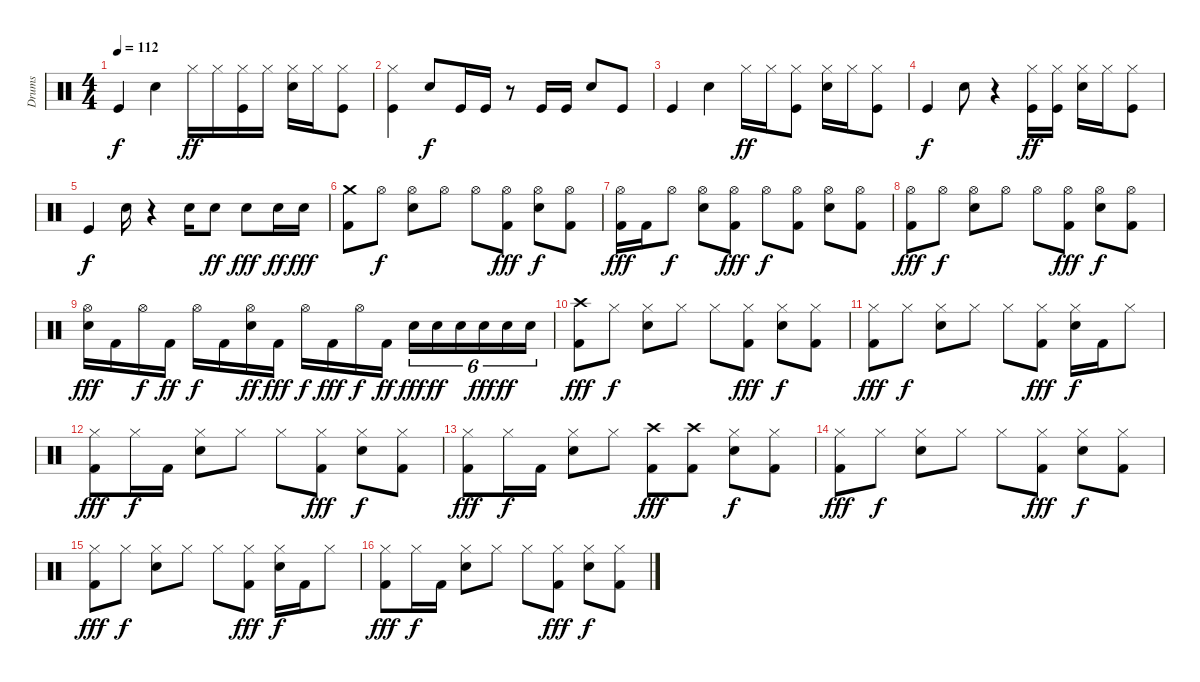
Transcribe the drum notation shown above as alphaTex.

\track ("Drums" "Drums") {instrument percussion}
\staff {score}
\articulation defaults
\ts (4 4)
\tempo 112
\clef neutral
\ks c "Kick (hit)".4{dy f} "Snare (hit) 2".4 "Hi-Hat (closed)".16{dy ff} "Hi-Hat (closed)".16
("Hi-Hat (closed)" "Kick (hit)").16 "Hi-Hat (closed)".16 ("Hi-Hat (closed)" "Snare (hit) 2").16 "Hi-Hat (closed)".16 ("Hi-Hat (closed)" "Kick (hit)").8 |
("Hi-Hat (closed)" "Kick (hit)").4 "Snare (hit) 2".8{dy f} "Kick (hit)".16 "Kick (hit)".16 r.8 "Kick (hit)".16 "Kick (hit)".16 "Snare (hit) 2".8 "Kick (hit)".8 |
"Kick (hit)".4 "Snare (hit) 2".4 "Hi-Hat (closed)".16{dy ff} "Hi-Hat (closed)".16 ("Hi-Hat (closed)" "Kick (hit)").8 ("Hi-Hat (closed)" "Snare (hit) 2").16 "Hi-Hat (closed)".16 ("Hi-Hat (closed)" "Kick (hit)").8 |
"Kick (hit)".4{dy f} "Snare (hit) 2".8 r.4 ("Kick (hit)" "Hi-Hat (closed)").16{dy ff} ("Kick (hit)" "Hi-Hat (closed)").16 ("Hi-Hat (closed)" "Snare (hit) 2").16 "Hi-Hat (closed)".16 ("Kick (hit)" "Hi-Hat (closed)").8 |
"Kick (hit)".4{dy f} "Snare (hit) 2".16 r.4 "Snare (hit) 2".16 "Snare (hit) 2".8{dy ff} "Snare (hit) 2".8{dy fff} "Snare (hit) 2".16{dy ff} "Snare (hit) 2".16{dy fff} |
("Crash medium (hit)" "Kick (hit) 2").8 "Hi-Hat (open)".8{dy f} ("Hi-Hat (open)" "Snare (hit) 2").8 "Hi-Hat (open)".8 "Hi-Hat (open)".8 ("Hi-Hat (open)" "Kick (hit) 2").8{dy fff} ("Hi-Hat (open)" "Snare (hit) 2").8{dy f} ("Hi-Hat (open)" "Kick (hit) 2").8 |
("Hi-Hat (open)" "Kick (hit) 2").16{dy fff} "Kick (hit) 2".16 "Hi-Hat (open)".8{dy f} ("Hi-Hat (open)" "Snare (hit) 2").8 ("Kick (hit) 2" "Hi-Hat (open)").8{dy fff} "Hi-Hat (open)".8{dy f} ("Hi-Hat (open)" "Kick (hit) 2").8 ("Hi-Hat (open)" "Snare (hit) 2").8 ("Hi-Hat (open)" "Kick (hit) 2").8 |
("Hi-Hat (open)" "Kick (hit) 2").8{dy fff} "Hi-Hat (open)".8{dy f} ("Hi-Hat (open)" "Snare (hit) 2").8 "Hi-Hat (open)".8 "Hi-Hat (open)".8 ("Hi-Hat (open)" "Kick (hit) 2").8{dy fff} ("Hi-Hat (open)" "Snare (hit) 2").8{dy f} ("Hi-Hat (open)" "Kick (hit) 2").8 |
("Hi-Hat (open)" "Snare (hit) 2").16{dy fff} "Kick (hit) 2".16 "Hi-Hat (open)".16{dy f} "Kick (hit) 2".16{dy ff} "Hi-Hat (open)".16{dy f} "Kick (hit) 2".16 ("Hi-Hat (open)" "Snare (hit) 2").16{dy ff} "Kick (hit) 2".16{dy fff} "Hi-Hat (open)".16{dy f} "Kick (hit) 2".16{dy fff} "Hi-Hat (open)".16{dy f} "Kick (hit) 2".16{dy ff} "Snare (hit) 2".16{tu (6 4) dy fff} "Snare (hit) 2".16{tu (6 4) dy ff} "Snare (hit) 2".16{tu (6 4)} "Snare (hit) 2".16{tu (6 4) dy fff} "Snare (hit) 2".16{tu (6 4) dy ff} "Snare (hit) 2".16{tu (6 4)} |
("Kick (hit) 2" "Crash high (hit)").8{dy fff} "Hi-Hat (closed)".8{dy f} ("Hi-Hat (closed)" "Snare (hit) 2").8 "Hi-Hat (closed)".8 "Hi-Hat (closed)".8 ("Hi-Hat (closed)" "Kick (hit) 2").8{dy fff} ("Hi-Hat (closed)" "Snare (hit) 2").8{dy f} ("Hi-Hat (closed)" "Kick (hit) 2").8 |
("Hi-Hat (closed)" "Kick (hit) 2").8{dy fff} "Hi-Hat (closed)".8{dy f} ("Hi-Hat (closed)" "Snare (hit) 2").8 "Hi-Hat (closed)".8 "Hi-Hat (closed)".8 ("Hi-Hat (closed)" "Kick (hit) 2").8{dy fff} ("Hi-Hat (closed)" "Snare (hit) 2").16{dy f} "Kick (hit) 2".16 "Hi-Hat (closed)".8 |
("Hi-Hat (closed)" "Kick (hit) 2").8{dy fff} "Hi-Hat (closed)".16{dy f} "Kick (hit) 2".16 ("Hi-Hat (closed)" "Snare (hit) 2").8 "Hi-Hat (closed)".8 "Hi-Hat (closed)".8 ("Hi-Hat (closed)" "Kick (hit) 2").8{dy fff} ("Hi-Hat (closed)" "Snare (hit) 2").8{dy f} ("Kick (hit) 2" "Hi-Hat (closed)").8 |
("Hi-Hat (closed)" "Kick (hit) 2").8{dy fff} "Hi-Hat (closed)".16{dy f} "Kick (hit) 2".16 ("Hi-Hat (closed)" "Snare (hit) 2").8 "Hi-Hat (closed)".8 ("Crash high (hit)" "Kick (hit) 2").8{dy fff} ("Crash high (hit)" "Kick (hit) 2").8 ("Hi-Hat (closed)" "Snare (hit) 2").8{dy f} ("Kick (hit) 2" "Hi-Hat (closed)").8 |
("Hi-Hat (closed)" "Kick (hit) 2").8{dy fff} "Hi-Hat (closed)".8{dy f} ("Hi-Hat (closed)" "Snare (hit) 2").8 "Hi-Hat (closed)".8 "Hi-Hat (closed)".8 ("Hi-Hat (closed)" "Kick (hit) 2").8{dy fff} ("Hi-Hat (closed)" "Snare (hit) 2").8{dy f} ("Hi-Hat (closed)" "Kick (hit) 2").8 |
("Hi-Hat (closed)" "Kick (hit) 2").8{dy fff} "Hi-Hat (closed)".8{dy f} ("Hi-Hat (closed)" "Snare (hit) 2").8 "Hi-Hat (closed)".8 "Hi-Hat (closed)".8 ("Hi-Hat (closed)" "Kick (hit) 2").8{dy fff} ("Hi-Hat (closed)" "Snare (hit) 2").16{dy f} "Kick (hit) 2".16 "Hi-Hat (closed)".8 |
("Hi-Hat (closed)" "Kick (hit) 2").8{dy fff} "Hi-Hat (closed)".16{dy f} "Kick (hit) 2".16 ("Hi-Hat (closed)" "Snare (hit) 2").8 "Hi-Hat (closed)".8 "Hi-Hat (closed)".8 ("Hi-Hat (closed)" "Kick (hit) 2").8{dy fff} ("Hi-Hat (closed)" "Snare (hit) 2").8{dy f} ("Kick (hit) 2" "Hi-Hat (closed)").8
